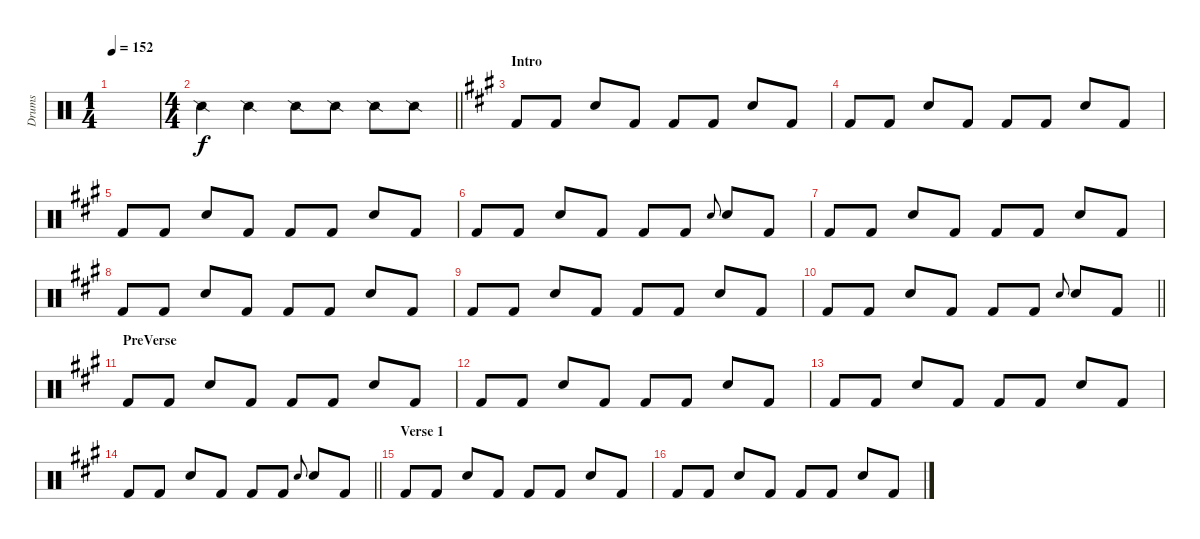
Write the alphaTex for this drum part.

\track ("Drums" "Drums") {instrument percussion}
\staff {score}
\articulation defaults
\ts (1 4)
\tempo 152
\clef neutral
\ks c
|
\ts (4 4)
\barLineRight lightlight "Snare (side stick) 2".4 "Snare (side stick) 2".4 "Snare (side stick) 2".8 "Snare (side stick) 2".8 "Snare (side stick) 2".8 "Snare (side stick) 2".8
|
\section ("" "Intro")
\ks a "Kick (hit) 2".8 "Kick (hit) 2".8 "Snare (hit) 2".8 "Kick (hit) 2".8 "Kick (hit) 2".8 "Kick (hit) 2".8 "Snare (hit) 2".8 "Kick (hit) 2".8
|
"Kick (hit) 2".8 "Kick (hit) 2".8 "Snare (hit) 2".8 "Kick (hit) 2".8 "Kick (hit) 2".8 "Kick (hit) 2".8 "Snare (hit) 2".8 "Kick (hit) 2".8 |
"Kick (hit) 2".8 "Kick (hit) 2".8 "Snare (hit) 2".8 "Kick (hit) 2".8 "Kick (hit) 2".8 "Kick (hit) 2".8 "Snare (hit) 2".8 "Kick (hit) 2".8 |
"Kick (hit) 2".8 "Kick (hit) 2".8 "Snare (hit) 2".8 "Kick (hit) 2".8 "Kick (hit) 2".8 "Kick (hit) 2".8 "Snare (hit) 2".8{gr onbeat} "Snare (hit) 2".8 "Kick (hit) 2".8 |
"Kick (hit) 2".8 "Kick (hit) 2".8 "Snare (hit) 2".8 "Kick (hit) 2".8 "Kick (hit) 2".8 "Kick (hit) 2".8 "Snare (hit) 2".8 "Kick (hit) 2".8 |
"Kick (hit) 2".8 "Kick (hit) 2".8 "Snare (hit) 2".8 "Kick (hit) 2".8 "Kick (hit) 2".8 "Kick (hit) 2".8 "Snare (hit) 2".8 "Kick (hit) 2".8 |
"Kick (hit) 2".8 "Kick (hit) 2".8 "Snare (hit) 2".8 "Kick (hit) 2".8 "Kick (hit) 2".8 "Kick (hit) 2".8 "Snare (hit) 2".8 "Kick (hit) 2".8 |
\barLineRight lightlight "Kick (hit) 2".8 "Kick (hit) 2".8 "Snare (hit) 2".8 "Kick (hit) 2".8 "Kick (hit) 2".8 "Kick (hit) 2".8 "Snare (hit) 2".8{gr onbeat} "Snare (hit) 2".8 "Kick (hit) 2".8
|
\section ("" "PreVerse")
"Kick (hit) 2".8 "Kick (hit) 2".8 "Snare (hit) 2".8 "Kick (hit) 2".8 "Kick (hit) 2".8 "Kick (hit) 2".8 "Snare (hit) 2".8 "Kick (hit) 2".8 |
"Kick (hit) 2".8 "Kick (hit) 2".8 "Snare (hit) 2".8 "Kick (hit) 2".8 "Kick (hit) 2".8 "Kick (hit) 2".8 "Snare (hit) 2".8 "Kick (hit) 2".8 |
"Kick (hit) 2".8 "Kick (hit) 2".8 "Snare (hit) 2".8 "Kick (hit) 2".8 "Kick (hit) 2".8 "Kick (hit) 2".8 "Snare (hit) 2".8 "Kick (hit) 2".8 |
\barLineRight lightlight "Kick (hit) 2".8 "Kick (hit) 2".8 "Snare (hit) 2".8 "Kick (hit) 2".8 "Kick (hit) 2".8 "Kick (hit) 2".8 "Snare (hit) 2".8{gr onbeat} "Snare (hit) 2".8 "Kick (hit) 2".8
|
\section ("" "Verse 1")
"Kick (hit) 2".8 "Kick (hit) 2".8 "Snare (hit) 2".8 "Kick (hit) 2".8 "Kick (hit) 2".8 "Kick (hit) 2".8 "Snare (hit) 2".8 "Kick (hit) 2".8 |
"Kick (hit) 2".8 "Kick (hit) 2".8 "Snare (hit) 2".8 "Kick (hit) 2".8 "Kick (hit) 2".8 "Kick (hit) 2".8 "Snare (hit) 2".8 "Kick (hit) 2".8
